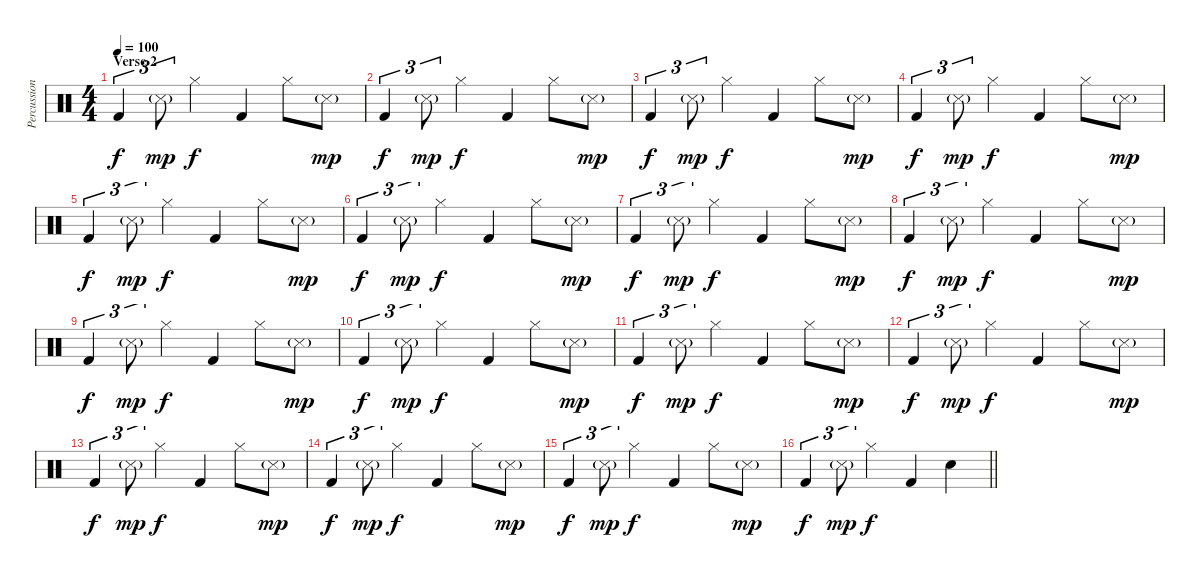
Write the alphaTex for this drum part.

\track ("Percussion" "Percussion") {instrument percussion}
\staff {score}
\articulation defaults
\ts (4 4)
\section ("" "Verse 2")
\tempo 100
\clef neutral
\ks c "Kick (hit) 2".4{tu (3 2) dy f} "Snare (side stick) 3"{g}.8{tu (3 2) dy mp} "Hi-Hat (closed)".4{dy f} "Kick (hit) 2".4 "Hi-Hat (closed)".8 "Snare (side stick) 3"{g}.8{dy mp}
|
"Kick (hit) 2".4{tu (3 2) dy f} "Snare (side stick) 3"{g}.8{tu (3 2) dy mp} "Hi-Hat (closed)".4{dy f} "Kick (hit) 2".4 "Hi-Hat (closed)".8 "Snare (side stick) 3"{g}.8{dy mp} |
"Kick (hit) 2".4{tu (3 2) dy f} "Snare (side stick) 3"{g}.8{tu (3 2) dy mp} "Hi-Hat (closed)".4{dy f} "Kick (hit) 2".4 "Hi-Hat (closed)".8 "Snare (side stick) 3"{g}.8{dy mp} |
"Kick (hit) 2".4{tu (3 2) dy f} "Snare (side stick) 3"{g}.8{tu (3 2) dy mp} "Hi-Hat (closed)".4{dy f} "Kick (hit) 2".4 "Hi-Hat (closed)".8 "Snare (side stick) 3"{g}.8{dy mp} |
"Kick (hit) 2".4{tu (3 2) dy f} "Snare (side stick) 3"{g}.8{tu (3 2) dy mp} "Hi-Hat (closed)".4{dy f} "Kick (hit) 2".4 "Hi-Hat (closed)".8 "Snare (side stick) 3"{g}.8{dy mp} |
"Kick (hit) 2".4{tu (3 2) dy f} "Snare (side stick) 3"{g}.8{tu (3 2) dy mp} "Hi-Hat (closed)".4{dy f} "Kick (hit) 2".4 "Hi-Hat (closed)".8 "Snare (side stick) 3"{g}.8{dy mp} |
"Kick (hit) 2".4{tu (3 2) dy f} "Snare (side stick) 3"{g}.8{tu (3 2) dy mp} "Hi-Hat (closed)".4{dy f} "Kick (hit) 2".4 "Hi-Hat (closed)".8 "Snare (side stick) 3"{g}.8{dy mp} |
"Kick (hit) 2".4{tu (3 2) dy f} "Snare (side stick) 3"{g}.8{tu (3 2) dy mp} "Hi-Hat (closed)".4{dy f} "Kick (hit) 2".4 "Hi-Hat (closed)".8 "Snare (side stick) 3"{g}.8{dy mp} |
"Kick (hit) 2".4{tu (3 2) dy f} "Snare (side stick) 3"{g}.8{tu (3 2) dy mp} "Hi-Hat (closed)".4{dy f} "Kick (hit) 2".4 "Hi-Hat (closed)".8 "Snare (side stick) 3"{g}.8{dy mp} |
"Kick (hit) 2".4{tu (3 2) dy f} "Snare (side stick) 3"{g}.8{tu (3 2) dy mp} "Hi-Hat (closed)".4{dy f} "Kick (hit) 2".4 "Hi-Hat (closed)".8 "Snare (side stick) 3"{g}.8{dy mp} |
"Kick (hit) 2".4{tu (3 2) dy f} "Snare (side stick) 3"{g}.8{tu (3 2) dy mp} "Hi-Hat (closed)".4{dy f} "Kick (hit) 2".4 "Hi-Hat (closed)".8 "Snare (side stick) 3"{g}.8{dy mp} |
"Kick (hit) 2".4{tu (3 2) dy f} "Snare (side stick) 3"{g}.8{tu (3 2) dy mp} "Hi-Hat (closed)".4{dy f} "Kick (hit) 2".4 "Hi-Hat (closed)".8 "Snare (side stick) 3"{g}.8{dy mp} |
"Kick (hit) 2".4{tu (3 2) dy f} "Snare (side stick) 3"{g}.8{tu (3 2) dy mp} "Hi-Hat (closed)".4{dy f} "Kick (hit) 2".4 "Hi-Hat (closed)".8 "Snare (side stick) 3"{g}.8{dy mp} |
"Kick (hit) 2".4{tu (3 2) dy f} "Snare (side stick) 3"{g}.8{tu (3 2) dy mp} "Hi-Hat (closed)".4{dy f} "Kick (hit) 2".4 "Hi-Hat (closed)".8 "Snare (side stick) 3"{g}.8{dy mp} |
"Kick (hit) 2".4{tu (3 2) dy f} "Snare (side stick) 3"{g}.8{tu (3 2) dy mp} "Hi-Hat (closed)".4{dy f} "Kick (hit) 2".4 "Hi-Hat (closed)".8 "Snare (side stick) 3"{g}.8{dy mp} |
\barLineRight lightlight "Kick (hit) 2".4{tu (3 2) dy f} "Snare (side stick) 3"{g}.8{tu (3 2) dy mp} "Hi-Hat (closed)".4{dy f} "Kick (hit) 2".4 "Snare (hit) 2".4
